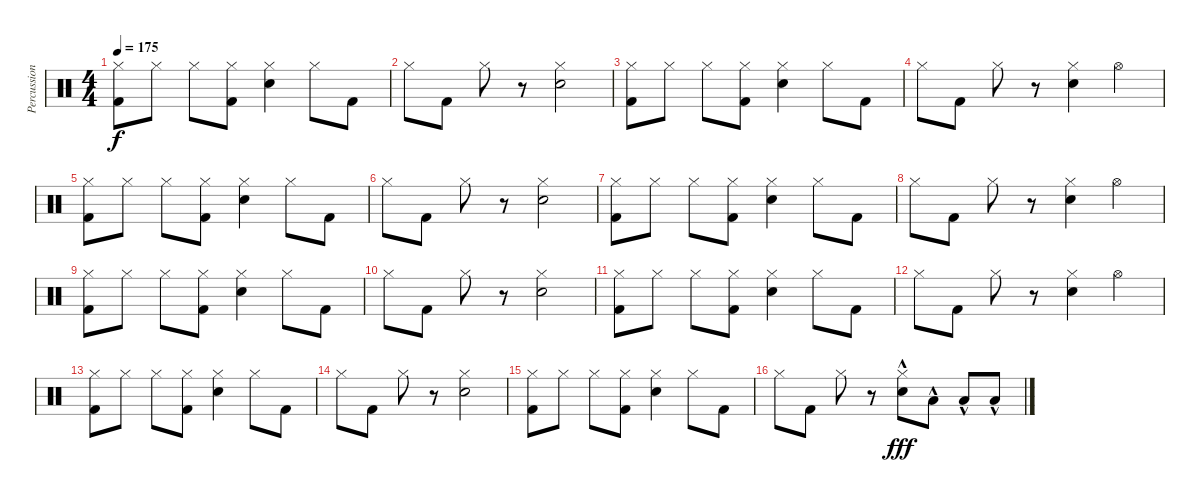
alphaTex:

\track ("Percussion" "Percussion") {instrument percussion}
\staff {score}
\articulation defaults
\ts (4 4)
\tempo 175
\clef neutral
\ks c
("Hi-Hat (closed)" "Kick (hit) 2").8{dy f} "Hi-Hat (closed)".8 "Hi-Hat (closed)".8 ("Hi-Hat (closed)" "Kick (hit) 2").8 ("Hi-Hat (closed)" "Snare (hit) 2").4 "Hi-Hat (closed)".8 "Kick (hit) 2".8 |
"Hi-Hat (closed)".8 "Kick (hit) 2".8 "Hi-Hat (closed)".8 r.8 ("Hi-Hat (closed)" "Snare (hit) 2").2 |
("Hi-Hat (closed)" "Kick (hit) 2").8 "Hi-Hat (closed)".8 "Hi-Hat (closed)".8 ("Hi-Hat (closed)" "Kick (hit) 2").8 ("Hi-Hat (closed)" "Snare (hit) 2").4 "Hi-Hat (closed)".8 "Kick (hit) 2".8 |
"Hi-Hat (closed)".8 "Kick (hit) 2".8 "Hi-Hat (closed)".8 r.8 ("Hi-Hat (closed)" "Snare (hit) 2").4 "Hi-Hat (open)".4 |
("Hi-Hat (closed)" "Kick (hit) 2").8 "Hi-Hat (closed)".8 "Hi-Hat (closed)".8 ("Hi-Hat (closed)" "Kick (hit) 2").8 ("Hi-Hat (closed)" "Snare (hit) 2").4 "Hi-Hat (closed)".8 "Kick (hit) 2".8 |
"Hi-Hat (closed)".8 "Kick (hit) 2".8 "Hi-Hat (closed)".8 r.8 ("Hi-Hat (closed)" "Snare (hit) 2").2 |
("Hi-Hat (closed)" "Kick (hit) 2").8 "Hi-Hat (closed)".8 "Hi-Hat (closed)".8 ("Hi-Hat (closed)" "Kick (hit) 2").8 ("Hi-Hat (closed)" "Snare (hit) 2").4 "Hi-Hat (closed)".8 "Kick (hit) 2".8 |
"Hi-Hat (closed)".8 "Kick (hit) 2".8 "Hi-Hat (closed)".8 r.8 ("Hi-Hat (closed)" "Snare (hit) 2").4 "Hi-Hat (open)".4 |
("Hi-Hat (closed)" "Kick (hit) 2").8 "Hi-Hat (closed)".8 "Hi-Hat (closed)".8 ("Hi-Hat (closed)" "Kick (hit) 2").8 ("Hi-Hat (closed)" "Snare (hit) 2").4 "Hi-Hat (closed)".8 "Kick (hit) 2".8 |
"Hi-Hat (closed)".8 "Kick (hit) 2".8 "Hi-Hat (closed)".8 r.8 ("Hi-Hat (closed)" "Snare (hit) 2").2 |
("Hi-Hat (closed)" "Kick (hit) 2").8 "Hi-Hat (closed)".8 "Hi-Hat (closed)".8 ("Hi-Hat (closed)" "Kick (hit) 2").8 ("Hi-Hat (closed)" "Snare (hit) 2").4 "Hi-Hat (closed)".8 "Kick (hit) 2".8 |
"Hi-Hat (closed)".8 "Kick (hit) 2".8 "Hi-Hat (closed)".8 r.8 ("Hi-Hat (closed)" "Snare (hit) 2").4 "Hi-Hat (open)".4 |
("Hi-Hat (closed)" "Kick (hit) 2").8 "Hi-Hat (closed)".8 "Hi-Hat (closed)".8 ("Hi-Hat (closed)" "Kick (hit) 2").8 ("Hi-Hat (closed)" "Snare (hit) 2").4 "Hi-Hat (closed)".8 "Kick (hit) 2".8 |
"Hi-Hat (closed)".8 "Kick (hit) 2".8 "Hi-Hat (closed)".8 r.8 ("Hi-Hat (closed)" "Snare (hit) 2").2 |
("Hi-Hat (closed)" "Kick (hit) 2").8 "Hi-Hat (closed)".8 "Hi-Hat (closed)".8 ("Hi-Hat (closed)" "Kick (hit) 2").8 ("Hi-Hat (closed)" "Snare (hit) 2").4 "Hi-Hat (closed)".8 "Kick (hit) 2".8 |
"Hi-Hat (closed)".8 "Kick (hit) 2".8 "Hi-Hat (closed)".8 r.8 ("Hi-Hat (closed)" "Snare (hit) 2"{hac}).8{dy fff} "Low Floor Tom (hit)"{hac}.8 "Low Floor Tom (hit)"{hac}.8 "Low Floor Tom (hit)"{hac}.8
